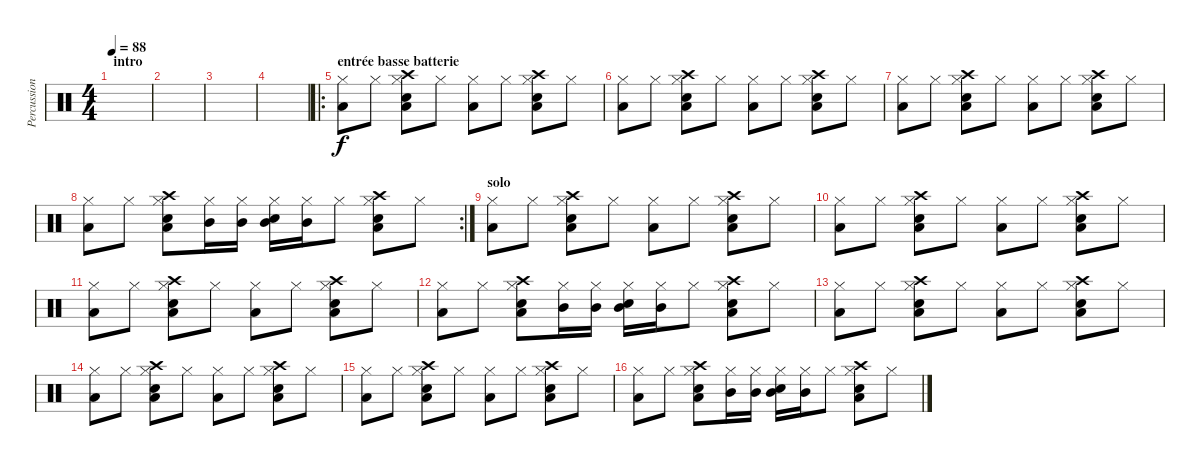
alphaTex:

\track ("Percussions" "Percussion") {instrument percussion}
\staff {score}
\articulation defaults
\ts (4 4)
\section ("" "intro")
\tempo 88
\clef neutral
\ks c
|
|
|
|
\ro
\section ("" "entrée basse batterie")
("Hi-Hat (closed)" "Low Floor Tom (hit)").8 "Hi-Hat (closed)".8 ("Snare (hit) 2" "Low Floor Tom (hit)" "Hi-Hat (closed)" "Crash high (hit)").8 "Hi-Hat (closed)".8 ("Hi-Hat (closed)" "Low Floor Tom (hit)").8 "Hi-Hat (closed)".8 ("Snare (hit) 2" "Low Floor Tom (hit)" "Hi-Hat (closed)" "Crash high (hit)").8 "Hi-Hat (closed)".8 |
("Hi-Hat (closed)" "Low Floor Tom (hit)").8 "Hi-Hat (closed)".8 ("Snare (hit) 2" "Low Floor Tom (hit)" "Hi-Hat (closed)" "Crash high (hit)").8 "Hi-Hat (closed)".8 ("Hi-Hat (closed)" "Low Floor Tom (hit)").8 "Hi-Hat (closed)".8 ("Snare (hit) 2" "Low Floor Tom (hit)" "Hi-Hat (closed)" "Crash high (hit)").8 "Hi-Hat (closed)".8 |
("Hi-Hat (closed)" "Low Floor Tom (hit)").8 "Hi-Hat (closed)".8 ("Snare (hit) 2" "Low Floor Tom (hit)" "Hi-Hat (closed)" "Crash high (hit)").8 "Hi-Hat (closed)".8 ("Hi-Hat (closed)" "Low Floor Tom (hit)").8 "Hi-Hat (closed)".8 ("Snare (hit) 2" "Low Floor Tom (hit)" "Hi-Hat (closed)" "Crash high (hit)").8 "Hi-Hat (closed)".8 |
\rc 2
("Hi-Hat (closed)" "Low Floor Tom (hit)").8 "Hi-Hat (closed)".8 ("Snare (hit) 2" "Low Floor Tom (hit)" "Hi-Hat (closed)" "Crash high (hit)").8 ("Mid Tom (hit)" "Hi-Hat (closed)").16 ("Mid Tom (hit)" "Hi-Hat (closed)").16 ("Snare (hit) 2" "Mid Tom (hit)" "Hi-Hat (closed)").16 ("Mid Tom (hit)" "Hi-Hat (closed)").16 "Hi-Hat (closed)".8 ("Snare (hit) 2" "Low Floor Tom (hit)" "Hi-Hat (closed)" "Crash high (hit)").8 "Hi-Hat (closed)".8 |
\section ("" "solo")
("Hi-Hat (closed)" "Low Floor Tom (hit)").8 "Hi-Hat (closed)".8 ("Snare (hit) 2" "Low Floor Tom (hit)" "Hi-Hat (closed)" "Crash high (hit)").8 "Hi-Hat (closed)".8 ("Hi-Hat (closed)" "Low Floor Tom (hit)").8 "Hi-Hat (closed)".8 ("Snare (hit) 2" "Low Floor Tom (hit)" "Hi-Hat (closed)" "Crash high (hit)").8 "Hi-Hat (closed)".8 |
("Hi-Hat (closed)" "Low Floor Tom (hit)").8 "Hi-Hat (closed)".8 ("Snare (hit) 2" "Low Floor Tom (hit)" "Hi-Hat (closed)" "Crash high (hit)").8 "Hi-Hat (closed)".8 ("Hi-Hat (closed)" "Low Floor Tom (hit)").8 "Hi-Hat (closed)".8 ("Snare (hit) 2" "Low Floor Tom (hit)" "Hi-Hat (closed)" "Crash high (hit)").8 "Hi-Hat (closed)".8 |
("Hi-Hat (closed)" "Low Floor Tom (hit)").8 "Hi-Hat (closed)".8 ("Snare (hit) 2" "Low Floor Tom (hit)" "Hi-Hat (closed)" "Crash high (hit)").8 "Hi-Hat (closed)".8 ("Hi-Hat (closed)" "Low Floor Tom (hit)").8 "Hi-Hat (closed)".8 ("Snare (hit) 2" "Low Floor Tom (hit)" "Hi-Hat (closed)" "Crash high (hit)").8 "Hi-Hat (closed)".8 |
("Hi-Hat (closed)" "Low Floor Tom (hit)").8 "Hi-Hat (closed)".8 ("Snare (hit) 2" "Low Floor Tom (hit)" "Hi-Hat (closed)" "Crash high (hit)").8 ("Mid Tom (hit)" "Hi-Hat (closed)").16 ("Mid Tom (hit)" "Hi-Hat (closed)").16 ("Snare (hit) 2" "Mid Tom (hit)" "Hi-Hat (closed)").16 ("Mid Tom (hit)" "Hi-Hat (closed)").16 "Hi-Hat (closed)".8 ("Snare (hit) 2" "Low Floor Tom (hit)" "Hi-Hat (closed)" "Crash high (hit)").8 "Hi-Hat (closed)".8 |
("Hi-Hat (closed)" "Low Floor Tom (hit)").8 "Hi-Hat (closed)".8 ("Snare (hit) 2" "Low Floor Tom (hit)" "Hi-Hat (closed)" "Crash high (hit)").8 "Hi-Hat (closed)".8 ("Hi-Hat (closed)" "Low Floor Tom (hit)").8 "Hi-Hat (closed)".8 ("Snare (hit) 2" "Low Floor Tom (hit)" "Hi-Hat (closed)" "Crash high (hit)").8 "Hi-Hat (closed)".8 |
("Hi-Hat (closed)" "Low Floor Tom (hit)").8 "Hi-Hat (closed)".8 ("Snare (hit) 2" "Low Floor Tom (hit)" "Hi-Hat (closed)" "Crash high (hit)").8 "Hi-Hat (closed)".8 ("Hi-Hat (closed)" "Low Floor Tom (hit)").8 "Hi-Hat (closed)".8 ("Snare (hit) 2" "Low Floor Tom (hit)" "Hi-Hat (closed)" "Crash high (hit)").8 "Hi-Hat (closed)".8 |
("Hi-Hat (closed)" "Low Floor Tom (hit)").8 "Hi-Hat (closed)".8 ("Snare (hit) 2" "Low Floor Tom (hit)" "Hi-Hat (closed)" "Crash high (hit)").8 "Hi-Hat (closed)".8 ("Hi-Hat (closed)" "Low Floor Tom (hit)").8 "Hi-Hat (closed)".8 ("Snare (hit) 2" "Low Floor Tom (hit)" "Hi-Hat (closed)" "Crash high (hit)").8 "Hi-Hat (closed)".8 |
("Hi-Hat (closed)" "Low Floor Tom (hit)").8 "Hi-Hat (closed)".8 ("Snare (hit) 2" "Low Floor Tom (hit)" "Hi-Hat (closed)" "Crash high (hit)").8 ("Mid Tom (hit)" "Hi-Hat (closed)").16 ("Mid Tom (hit)" "Hi-Hat (closed)").16 ("Snare (hit) 2" "Mid Tom (hit)" "Hi-Hat (closed)").16 ("Mid Tom (hit)" "Hi-Hat (closed)").16 "Hi-Hat (closed)".8 ("Snare (hit) 2" "Low Floor Tom (hit)" "Hi-Hat (closed)" "Crash high (hit)").8 "Hi-Hat (closed)".8
